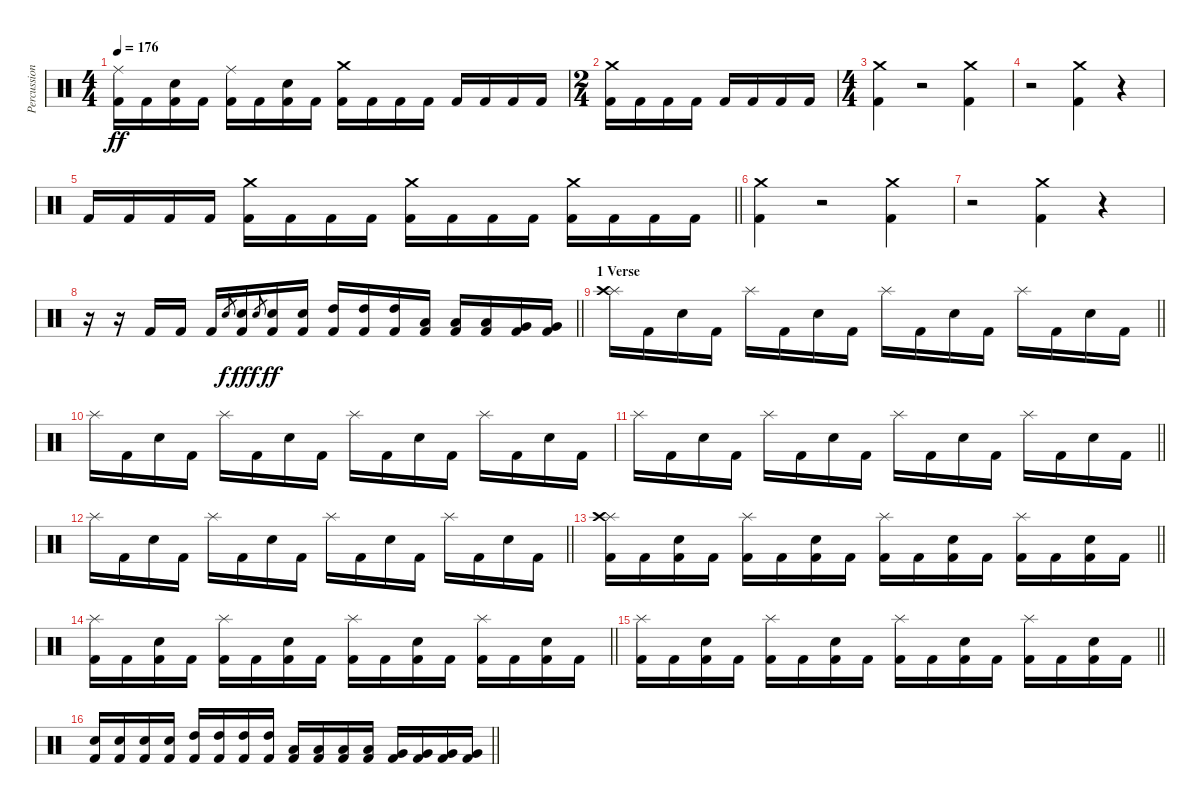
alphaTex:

\track ("Percussion" "Percussion") {instrument percussion}
\staff {score}
\articulation defaults
\ts (4 4)
\tempo 176
\clef neutral
\ks c
("Kick (hit) 2" "Ride (middle)").16{dy ff} "Kick (hit) 2".16 ("Kick (hit) 2" "Electric Snare (hit)").16 "Kick (hit) 2".16 ("Kick (hit) 2" "Ride (middle)").16 "Kick (hit) 2".16 ("Kick (hit) 2" "Electric Snare (hit)").16 "Kick (hit) 2".16 ("Kick (hit) 2" "Crash medium (hit)").16 "Kick (hit) 2".16 "Kick (hit) 2".16 "Kick (hit) 2".16 "Kick (hit) 2".16 "Kick (hit) 2".16 "Kick (hit) 2".16 "Kick (hit) 2".16 |
\ts (2 4)
("Kick (hit) 2" "Crash medium (hit)").16 "Kick (hit) 2".16 "Kick (hit) 2".16 "Kick (hit) 2".16 "Kick (hit) 2".16 "Kick (hit) 2".16 "Kick (hit) 2".16 "Kick (hit) 2".16 |
\ts (4 4)
("Kick (hit) 2" "Crash medium (hit)").4 r.2 ("Kick (hit) 2" "Crash medium (hit)").4 |
r.2 ("Kick (hit) 2" "Crash medium (hit)").4 r.4 |
\barLineRight lightlight "Kick (hit) 2".16 "Kick (hit) 2".16 "Kick (hit) 2".16 "Kick (hit) 2".16
("Kick (hit) 2" "Crash medium (hit)").16 "Kick (hit) 2".16 "Kick (hit) 2".16 "Kick (hit) 2".16 ("Kick (hit) 2" "Crash medium (hit)").16 "Kick (hit) 2".16 "Kick (hit) 2".16 "Kick (hit) 2".16 ("Kick (hit) 2" "Crash medium (hit)").16 "Kick (hit) 2".16 "Kick (hit) 2".16 "Kick (hit) 2".16 |
("Kick (hit) 2" "Crash medium (hit)").4 r.2 ("Kick (hit) 2" "Crash medium (hit)").4 |
r.2 ("Kick (hit) 2" "Crash medium (hit)").4 r.4 |
\barLineRight lightlight
r.16 r.16 "Kick (hit) 2".16 "Kick (hit) 2".16 "Kick (hit) 2".16 "Electric Snare (hit)".8{gr dy f} ("Kick (hit) 2" "Electric Snare (hit)").16{dy ff} "Electric Snare (hit)".8{gr dy f} ("Kick (hit) 2" "Electric Snare (hit)").16{dy ff} ("Kick (hit) 2" "Electric Snare (hit)").16 ("Kick (hit) 2" "High Tom (hit)").16 ("Kick (hit) 2" "High Tom (hit)").16 ("Kick (hit) 2" "High Tom (hit)").16 ("Kick (hit) 2" "Low Tom (hit)").16 ("Kick (hit) 2" "Low Tom (hit)").16 ("Kick (hit) 2" "Low Tom (hit)").16 ("Kick (hit) 2" "Very Low Tom (hit)").16 ("Kick (hit) 2" "Very Low Tom (hit)").16 |
\section ("" "1 Verse")
\barLineRight lightlight
("Splash (hit)" "Crash high (hit)").16 "Kick (hit) 2".16 "Electric Snare (hit)".16 "Kick (hit) 2".16 "Splash (hit)".16 "Kick (hit) 2".16 "Electric Snare (hit)".16 "Kick (hit) 2".16 "Splash (hit)".16 "Kick (hit) 2".16 "Electric Snare (hit)".16 "Kick (hit) 2".16 "Splash (hit)".16 "Kick (hit) 2".16 "Electric Snare (hit)".16 "Kick (hit) 2".16 |
"Splash (hit)".16 "Kick (hit) 2".16 "Electric Snare (hit)".16 "Kick (hit) 2".16 "Splash (hit)".16 "Kick (hit) 2".16 "Electric Snare (hit)".16 "Kick (hit) 2".16 "Splash (hit)".16 "Kick (hit) 2".16 "Electric Snare (hit)".16 "Kick (hit) 2".16 "Splash (hit)".16 "Kick (hit) 2".16 "Electric Snare (hit)".16 "Kick (hit) 2".16 |
\barLineRight lightlight "Splash (hit)".16 "Kick (hit) 2".16 "Electric Snare (hit)".16 "Kick (hit) 2".16 "Splash (hit)".16 "Kick (hit) 2".16 "Electric Snare (hit)".16 "Kick (hit) 2".16 "Splash (hit)".16 "Kick (hit) 2".16 "Electric Snare (hit)".16 "Kick (hit) 2".16 "Splash (hit)".16 "Kick (hit) 2".16 "Electric Snare (hit)".16 "Kick (hit) 2".16
|
\barLineRight lightlight "Splash (hit)".16 "Kick (hit) 2".16 "Electric Snare (hit)".16 "Kick (hit) 2".16 "Splash (hit)".16 "Kick (hit) 2".16 "Electric Snare (hit)".16 "Kick (hit) 2".16 "Splash (hit)".16 "Kick (hit) 2".16 "Electric Snare (hit)".16 "Kick (hit) 2".16 "Splash (hit)".16 "Kick (hit) 2".16 "Electric Snare (hit)".16 "Kick (hit) 2".16
|
\section ("" "")
\barLineRight lightlight
("Kick (hit) 2" "Splash (hit)" "Crash high (hit)").16 "Kick (hit) 2".16 ("Kick (hit) 2" "Electric Snare (hit)").16 "Kick (hit) 2".16 ("Kick (hit) 2" "Splash (hit)").16 "Kick (hit) 2".16 ("Kick (hit) 2" "Electric Snare (hit)").16 "Kick (hit) 2".16 ("Kick (hit) 2" "Splash (hit)").16 "Kick (hit) 2".16 ("Kick (hit) 2" "Electric Snare (hit)").16 "Kick (hit) 2".16 ("Kick (hit) 2" "Splash (hit)").16 "Kick (hit) 2".16 ("Kick (hit) 2" "Electric Snare (hit)").16 "Kick (hit) 2".16 |
\barLineRight lightlight
("Kick (hit) 2" "Splash (hit)").16 "Kick (hit) 2".16 ("Kick (hit) 2" "Electric Snare (hit)").16 "Kick (hit) 2".16 ("Kick (hit) 2" "Splash (hit)").16 "Kick (hit) 2".16 ("Kick (hit) 2" "Electric Snare (hit)").16 "Kick (hit) 2".16 ("Kick (hit) 2" "Splash (hit)").16 "Kick (hit) 2".16 ("Kick (hit) 2" "Electric Snare (hit)").16 "Kick (hit) 2".16 ("Kick (hit) 2" "Splash (hit)").16 "Kick (hit) 2".16 ("Kick (hit) 2" "Electric Snare (hit)").16 "Kick (hit) 2".16 |
\section ("" "")
\barLineRight lightlight
("Kick (hit) 2" "Splash (hit)").16 "Kick (hit) 2".16 ("Kick (hit) 2" "Electric Snare (hit)").16 "Kick (hit) 2".16 ("Kick (hit) 2" "Splash (hit)").16 "Kick (hit) 2".16 ("Kick (hit) 2" "Electric Snare (hit)").16 "Kick (hit) 2".16 ("Kick (hit) 2" "Splash (hit)").16 "Kick (hit) 2".16 ("Kick (hit) 2" "Electric Snare (hit)").16 "Kick (hit) 2".16 ("Kick (hit) 2" "Splash (hit)").16 "Kick (hit) 2".16 ("Kick (hit) 2" "Electric Snare (hit)").16 "Kick (hit) 2".16 |
\barLineRight lightlight
("Kick (hit) 2" "Electric Snare (hit)").16 ("Kick (hit) 2" "Electric Snare (hit)").16 ("Kick (hit) 2" "Electric Snare (hit)").16 ("Kick (hit) 2" "Electric Snare (hit)").16 ("Kick (hit) 2" "High Tom (hit)").16 ("Kick (hit) 2" "High Tom (hit)").16 ("Kick (hit) 2" "High Tom (hit)").16 ("Kick (hit) 2" "High Tom (hit)").16 ("Kick (hit) 2" "Low Tom (hit)").16 ("Kick (hit) 2" "Low Tom (hit)").16 ("Kick (hit) 2" "Low Tom (hit)").16 ("Kick (hit) 2" "Low Tom (hit)").16 ("Kick (hit) 2" "Very Low Tom (hit)").16 ("Kick (hit) 2" "Very Low Tom (hit)").16 ("Kick (hit) 2" "Very Low Tom (hit)").16 ("Kick (hit) 2" "Very Low Tom (hit)").16
